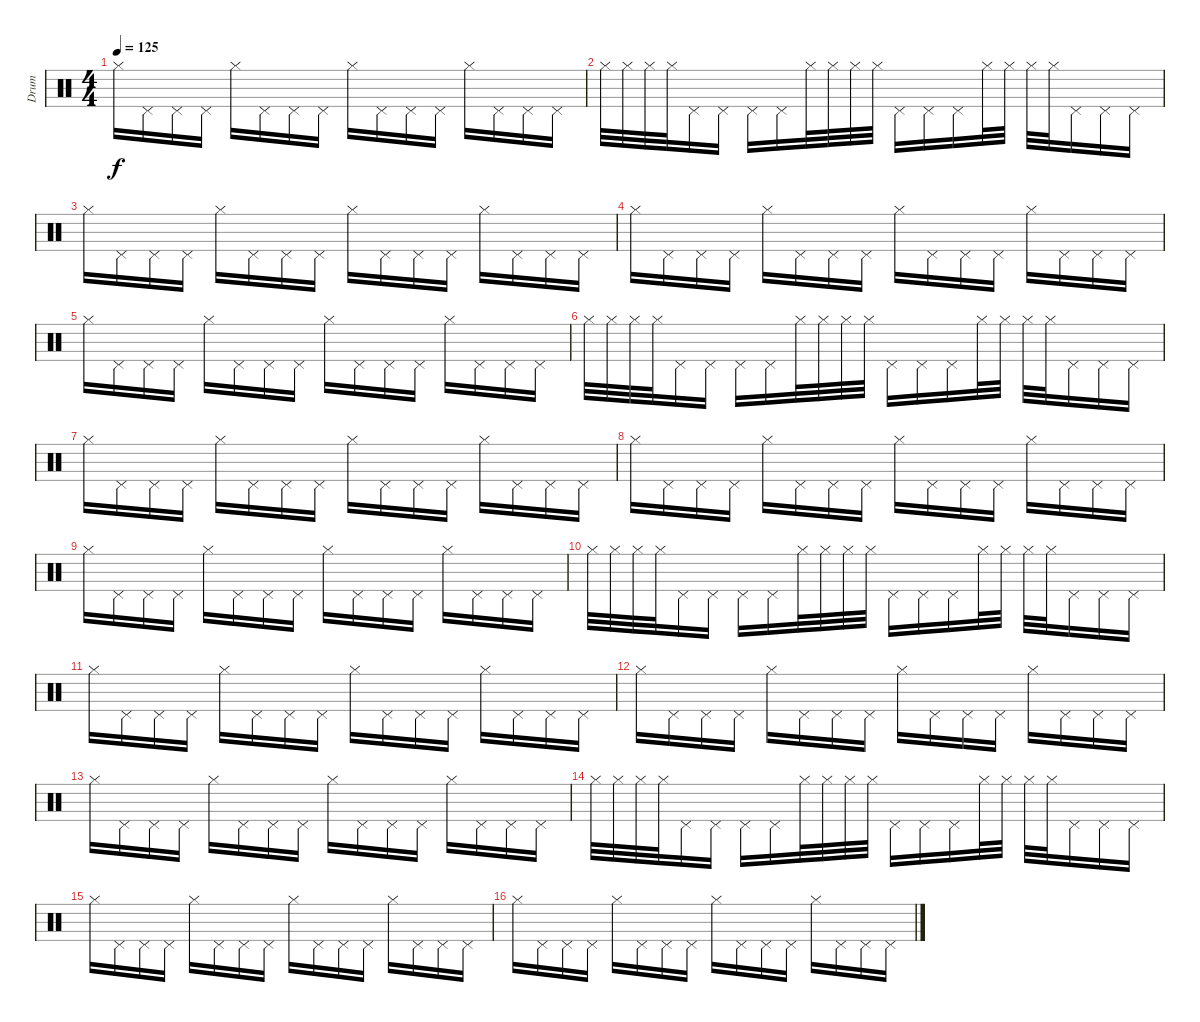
\track ("Drum" "Drum") {instrument percussion}
\staff {score}
\articulation defaults
\ts (4 4)
\tempo 125
\clef neutral
\ks c "Hi-Hat (closed)".16{dy f} "Pedal Hi-Hat (hit)".16 "Pedal Hi-Hat (hit)".16 "Pedal Hi-Hat (hit)".16 "Hi-Hat (closed)".16 "Pedal Hi-Hat (hit)".16 "Pedal Hi-Hat (hit)".16 "Pedal Hi-Hat (hit)".16 "Hi-Hat (closed)".16 "Pedal Hi-Hat (hit)".16 "Pedal Hi-Hat (hit)".16 "Pedal Hi-Hat (hit)".16 "Hi-Hat (closed)".16 "Pedal Hi-Hat (hit)".16 "Pedal Hi-Hat (hit)".16 "Pedal Hi-Hat (hit)".16
|
"Hi-Hat (closed)".32 "Hi-Hat (closed)".32 "Hi-Hat (closed)".32 "Hi-Hat (closed)".32 "Pedal Hi-Hat (hit)".16 "Pedal Hi-Hat (hit)".16 "Pedal Hi-Hat (hit)".16 "Pedal Hi-Hat (hit)".16 "Hi-Hat (closed)".32 "Hi-Hat (closed)".32 "Hi-Hat (closed)".32 "Hi-Hat (closed)".32 "Pedal Hi-Hat (hit)".16 "Pedal Hi-Hat (hit)".16 "Pedal Hi-Hat (hit)".16 "Hi-Hat (closed)".32 "Hi-Hat (closed)".32 "Hi-Hat (closed)".32 "Hi-Hat (closed)".32 "Pedal Hi-Hat (hit)".16 "Pedal Hi-Hat (hit)".16 "Pedal Hi-Hat (hit)".16 |
"Hi-Hat (closed)".16 "Pedal Hi-Hat (hit)".16 "Pedal Hi-Hat (hit)".16 "Pedal Hi-Hat (hit)".16 "Hi-Hat (closed)".16 "Pedal Hi-Hat (hit)".16 "Pedal Hi-Hat (hit)".16 "Pedal Hi-Hat (hit)".16 "Hi-Hat (closed)".16 "Pedal Hi-Hat (hit)".16 "Pedal Hi-Hat (hit)".16 "Pedal Hi-Hat (hit)".16 "Hi-Hat (closed)".16 "Pedal Hi-Hat (hit)".16 "Pedal Hi-Hat (hit)".16 "Pedal Hi-Hat (hit)".16 |
"Hi-Hat (closed)".16 "Pedal Hi-Hat (hit)".16 "Pedal Hi-Hat (hit)".16 "Pedal Hi-Hat (hit)".16 "Hi-Hat (closed)".16 "Pedal Hi-Hat (hit)".16 "Pedal Hi-Hat (hit)".16 "Pedal Hi-Hat (hit)".16 "Hi-Hat (closed)".16 "Pedal Hi-Hat (hit)".16 "Pedal Hi-Hat (hit)".16 "Pedal Hi-Hat (hit)".16 "Hi-Hat (closed)".16 "Pedal Hi-Hat (hit)".16 "Pedal Hi-Hat (hit)".16 "Pedal Hi-Hat (hit)".16 |
"Hi-Hat (closed)".16 "Pedal Hi-Hat (hit)".16 "Pedal Hi-Hat (hit)".16 "Pedal Hi-Hat (hit)".16 "Hi-Hat (closed)".16 "Pedal Hi-Hat (hit)".16 "Pedal Hi-Hat (hit)".16 "Pedal Hi-Hat (hit)".16 "Hi-Hat (closed)".16 "Pedal Hi-Hat (hit)".16 "Pedal Hi-Hat (hit)".16 "Pedal Hi-Hat (hit)".16 "Hi-Hat (closed)".16 "Pedal Hi-Hat (hit)".16 "Pedal Hi-Hat (hit)".16 "Pedal Hi-Hat (hit)".16 |
"Hi-Hat (closed)".32 "Hi-Hat (closed)".32 "Hi-Hat (closed)".32 "Hi-Hat (closed)".32 "Pedal Hi-Hat (hit)".16 "Pedal Hi-Hat (hit)".16 "Pedal Hi-Hat (hit)".16 "Pedal Hi-Hat (hit)".16 "Hi-Hat (closed)".32 "Hi-Hat (closed)".32 "Hi-Hat (closed)".32 "Hi-Hat (closed)".32 "Pedal Hi-Hat (hit)".16 "Pedal Hi-Hat (hit)".16 "Pedal Hi-Hat (hit)".16 "Hi-Hat (closed)".32 "Hi-Hat (closed)".32 "Hi-Hat (closed)".32 "Hi-Hat (closed)".32 "Pedal Hi-Hat (hit)".16 "Pedal Hi-Hat (hit)".16 "Pedal Hi-Hat (hit)".16 |
"Hi-Hat (closed)".16 "Pedal Hi-Hat (hit)".16 "Pedal Hi-Hat (hit)".16 "Pedal Hi-Hat (hit)".16 "Hi-Hat (closed)".16 "Pedal Hi-Hat (hit)".16 "Pedal Hi-Hat (hit)".16 "Pedal Hi-Hat (hit)".16 "Hi-Hat (closed)".16 "Pedal Hi-Hat (hit)".16 "Pedal Hi-Hat (hit)".16 "Pedal Hi-Hat (hit)".16 "Hi-Hat (closed)".16 "Pedal Hi-Hat (hit)".16 "Pedal Hi-Hat (hit)".16 "Pedal Hi-Hat (hit)".16 |
"Hi-Hat (closed)".16 "Pedal Hi-Hat (hit)".16 "Pedal Hi-Hat (hit)".16 "Pedal Hi-Hat (hit)".16 "Hi-Hat (closed)".16 "Pedal Hi-Hat (hit)".16 "Pedal Hi-Hat (hit)".16 "Pedal Hi-Hat (hit)".16 "Hi-Hat (closed)".16 "Pedal Hi-Hat (hit)".16 "Pedal Hi-Hat (hit)".16 "Pedal Hi-Hat (hit)".16 "Hi-Hat (closed)".16 "Pedal Hi-Hat (hit)".16 "Pedal Hi-Hat (hit)".16 "Pedal Hi-Hat (hit)".16 |
"Hi-Hat (closed)".16 "Pedal Hi-Hat (hit)".16 "Pedal Hi-Hat (hit)".16 "Pedal Hi-Hat (hit)".16 "Hi-Hat (closed)".16 "Pedal Hi-Hat (hit)".16 "Pedal Hi-Hat (hit)".16 "Pedal Hi-Hat (hit)".16 "Hi-Hat (closed)".16 "Pedal Hi-Hat (hit)".16 "Pedal Hi-Hat (hit)".16 "Pedal Hi-Hat (hit)".16 "Hi-Hat (closed)".16 "Pedal Hi-Hat (hit)".16 "Pedal Hi-Hat (hit)".16 "Pedal Hi-Hat (hit)".16 |
"Hi-Hat (closed)".32 "Hi-Hat (closed)".32 "Hi-Hat (closed)".32 "Hi-Hat (closed)".32 "Pedal Hi-Hat (hit)".16 "Pedal Hi-Hat (hit)".16 "Pedal Hi-Hat (hit)".16 "Pedal Hi-Hat (hit)".16 "Hi-Hat (closed)".32 "Hi-Hat (closed)".32 "Hi-Hat (closed)".32 "Hi-Hat (closed)".32 "Pedal Hi-Hat (hit)".16 "Pedal Hi-Hat (hit)".16 "Pedal Hi-Hat (hit)".16 "Hi-Hat (closed)".32 "Hi-Hat (closed)".32 "Hi-Hat (closed)".32 "Hi-Hat (closed)".32 "Pedal Hi-Hat (hit)".16 "Pedal Hi-Hat (hit)".16 "Pedal Hi-Hat (hit)".16 |
"Hi-Hat (closed)".16 "Pedal Hi-Hat (hit)".16 "Pedal Hi-Hat (hit)".16 "Pedal Hi-Hat (hit)".16 "Hi-Hat (closed)".16 "Pedal Hi-Hat (hit)".16 "Pedal Hi-Hat (hit)".16 "Pedal Hi-Hat (hit)".16 "Hi-Hat (closed)".16 "Pedal Hi-Hat (hit)".16 "Pedal Hi-Hat (hit)".16 "Pedal Hi-Hat (hit)".16 "Hi-Hat (closed)".16 "Pedal Hi-Hat (hit)".16 "Pedal Hi-Hat (hit)".16 "Pedal Hi-Hat (hit)".16 |
"Hi-Hat (closed)".16 "Pedal Hi-Hat (hit)".16 "Pedal Hi-Hat (hit)".16 "Pedal Hi-Hat (hit)".16 "Hi-Hat (closed)".16 "Pedal Hi-Hat (hit)".16 "Pedal Hi-Hat (hit)".16 "Pedal Hi-Hat (hit)".16 "Hi-Hat (closed)".16 "Pedal Hi-Hat (hit)".16 "Pedal Hi-Hat (hit)".16 "Pedal Hi-Hat (hit)".16 "Hi-Hat (closed)".16 "Pedal Hi-Hat (hit)".16 "Pedal Hi-Hat (hit)".16 "Pedal Hi-Hat (hit)".16 |
"Hi-Hat (closed)".16 "Pedal Hi-Hat (hit)".16 "Pedal Hi-Hat (hit)".16 "Pedal Hi-Hat (hit)".16 "Hi-Hat (closed)".16 "Pedal Hi-Hat (hit)".16 "Pedal Hi-Hat (hit)".16 "Pedal Hi-Hat (hit)".16 "Hi-Hat (closed)".16 "Pedal Hi-Hat (hit)".16 "Pedal Hi-Hat (hit)".16 "Pedal Hi-Hat (hit)".16 "Hi-Hat (closed)".16 "Pedal Hi-Hat (hit)".16 "Pedal Hi-Hat (hit)".16 "Pedal Hi-Hat (hit)".16 |
"Hi-Hat (closed)".32 "Hi-Hat (closed)".32 "Hi-Hat (closed)".32 "Hi-Hat (closed)".32 "Pedal Hi-Hat (hit)".16 "Pedal Hi-Hat (hit)".16 "Pedal Hi-Hat (hit)".16 "Pedal Hi-Hat (hit)".16 "Hi-Hat (closed)".32 "Hi-Hat (closed)".32 "Hi-Hat (closed)".32 "Hi-Hat (closed)".32 "Pedal Hi-Hat (hit)".16 "Pedal Hi-Hat (hit)".16 "Pedal Hi-Hat (hit)".16 "Hi-Hat (closed)".32 "Hi-Hat (closed)".32 "Hi-Hat (closed)".32 "Hi-Hat (closed)".32 "Pedal Hi-Hat (hit)".16 "Pedal Hi-Hat (hit)".16 "Pedal Hi-Hat (hit)".16 |
"Hi-Hat (closed)".16 "Pedal Hi-Hat (hit)".16 "Pedal Hi-Hat (hit)".16 "Pedal Hi-Hat (hit)".16 "Hi-Hat (closed)".16 "Pedal Hi-Hat (hit)".16 "Pedal Hi-Hat (hit)".16 "Pedal Hi-Hat (hit)".16 "Hi-Hat (closed)".16 "Pedal Hi-Hat (hit)".16 "Pedal Hi-Hat (hit)".16 "Pedal Hi-Hat (hit)".16 "Hi-Hat (closed)".16 "Pedal Hi-Hat (hit)".16 "Pedal Hi-Hat (hit)".16 "Pedal Hi-Hat (hit)".16 |
"Hi-Hat (closed)".16 "Pedal Hi-Hat (hit)".16 "Pedal Hi-Hat (hit)".16 "Pedal Hi-Hat (hit)".16 "Hi-Hat (closed)".16 "Pedal Hi-Hat (hit)".16 "Pedal Hi-Hat (hit)".16 "Pedal Hi-Hat (hit)".16 "Hi-Hat (closed)".16 "Pedal Hi-Hat (hit)".16 "Pedal Hi-Hat (hit)".16 "Pedal Hi-Hat (hit)".16 "Hi-Hat (closed)".16 "Pedal Hi-Hat (hit)".16 "Pedal Hi-Hat (hit)".16 "Pedal Hi-Hat (hit)".16
